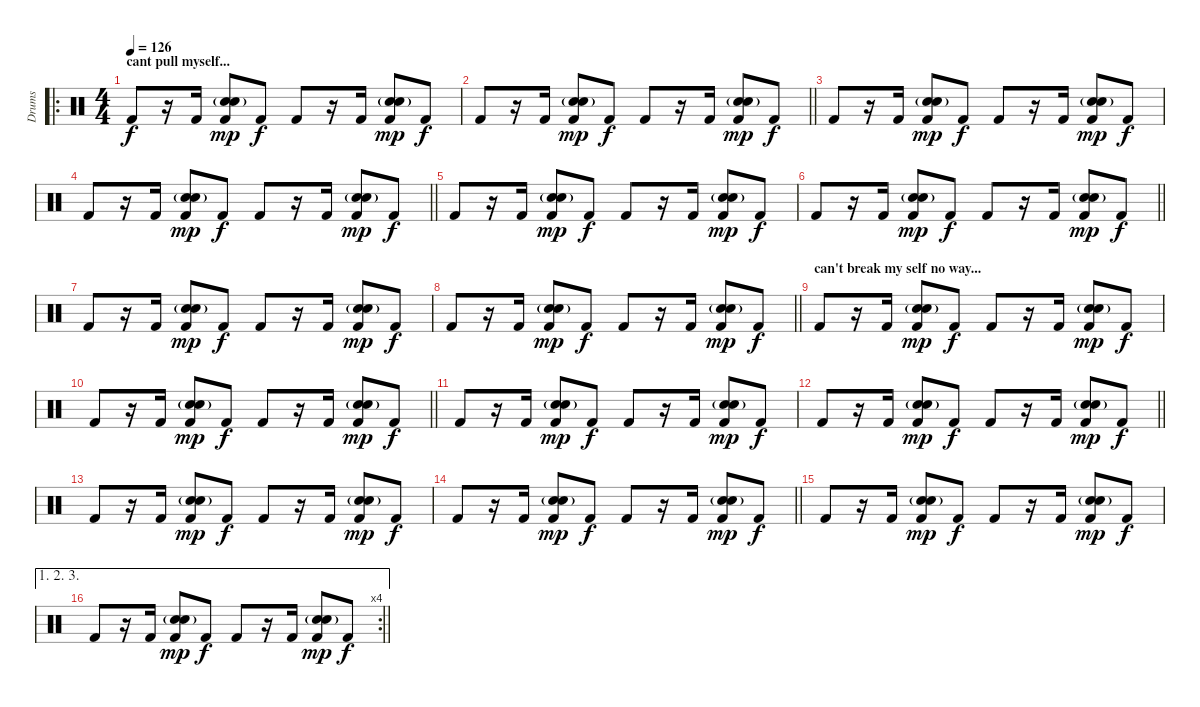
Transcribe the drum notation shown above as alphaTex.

\track ("Drums" "Drums") {instrument percussion}
\staff {score}
\articulation defaults
\ro
\ts (4 4)
\section ("" "cant pull myself...")
\tempo 126
\clef neutral
\ks c "Kick (hit) 2".8{dy f}
r.16 "Kick (hit) 2".16 ("Hand Clap (hit)" "Electric Snare (hit)"{g} "Kick (hit) 2").8{dy mp} "Kick (hit) 2".8{dy f} "Kick (hit) 2".8 r.16 "Kick (hit) 2".16 ("Hand Clap (hit)" "Electric Snare (hit)"{g} "Kick (hit) 2").8{dy mp} "Kick (hit) 2".8{dy f} |
\barLineRight lightlight "Kick (hit) 2".8
r.16 "Kick (hit) 2".16 ("Hand Clap (hit)" "Electric Snare (hit)"{g} "Kick (hit) 2").8{dy mp} "Kick (hit) 2".8{dy f} "Kick (hit) 2".8 r.16 "Kick (hit) 2".16 ("Hand Clap (hit)" "Electric Snare (hit)"{g} "Kick (hit) 2").8{dy mp} "Kick (hit) 2".8{dy f} |
"Kick (hit) 2".8 r.16 "Kick (hit) 2".16 ("Hand Clap (hit)" "Electric Snare (hit)"{g} "Kick (hit) 2").8{dy mp} "Kick (hit) 2".8{dy f} "Kick (hit) 2".8 r.16 "Kick (hit) 2".16 ("Hand Clap (hit)" "Electric Snare (hit)"{g} "Kick (hit) 2").8{dy mp} "Kick (hit) 2".8{dy f} |
\barLineRight lightlight "Kick (hit) 2".8
r.16 "Kick (hit) 2".16 ("Hand Clap (hit)" "Electric Snare (hit)"{g} "Kick (hit) 2").8{dy mp} "Kick (hit) 2".8{dy f} "Kick (hit) 2".8 r.16 "Kick (hit) 2".16 ("Hand Clap (hit)" "Electric Snare (hit)"{g} "Kick (hit) 2").8{dy mp} "Kick (hit) 2".8{dy f} |
"Kick (hit) 2".8 r.16 "Kick (hit) 2".16 ("Hand Clap (hit)" "Electric Snare (hit)"{g} "Kick (hit) 2").8{dy mp} "Kick (hit) 2".8{dy f} "Kick (hit) 2".8 r.16 "Kick (hit) 2".16 ("Hand Clap (hit)" "Electric Snare (hit)"{g} "Kick (hit) 2").8{dy mp} "Kick (hit) 2".8{dy f} |
\barLineRight lightlight "Kick (hit) 2".8
r.16 "Kick (hit) 2".16 ("Hand Clap (hit)" "Electric Snare (hit)"{g} "Kick (hit) 2").8{dy mp} "Kick (hit) 2".8{dy f} "Kick (hit) 2".8 r.16 "Kick (hit) 2".16 ("Hand Clap (hit)" "Electric Snare (hit)"{g} "Kick (hit) 2").8{dy mp} "Kick (hit) 2".8{dy f} |
"Kick (hit) 2".8 r.16 "Kick (hit) 2".16 ("Hand Clap (hit)" "Electric Snare (hit)"{g} "Kick (hit) 2").8{dy mp} "Kick (hit) 2".8{dy f} "Kick (hit) 2".8 r.16 "Kick (hit) 2".16 ("Hand Clap (hit)" "Electric Snare (hit)"{g} "Kick (hit) 2").8{dy mp} "Kick (hit) 2".8{dy f} |
\barLineRight lightlight "Kick (hit) 2".8
r.16 "Kick (hit) 2".16 ("Hand Clap (hit)" "Electric Snare (hit)"{g} "Kick (hit) 2").8{dy mp} "Kick (hit) 2".8{dy f} "Kick (hit) 2".8 r.16 "Kick (hit) 2".16 ("Hand Clap (hit)" "Electric Snare (hit)"{g} "Kick (hit) 2").8{dy mp} "Kick (hit) 2".8{dy f} |
\section ("" "can't break my self no way...")
"Kick (hit) 2".8 r.16 "Kick (hit) 2".16 ("Hand Clap (hit)" "Electric Snare (hit)"{g} "Kick (hit) 2").8{dy mp} "Kick (hit) 2".8{dy f} "Kick (hit) 2".8 r.16 "Kick (hit) 2".16 ("Hand Clap (hit)" "Electric Snare (hit)"{g} "Kick (hit) 2").8{dy mp} "Kick (hit) 2".8{dy f} |
\barLineRight lightlight "Kick (hit) 2".8
r.16 "Kick (hit) 2".16 ("Hand Clap (hit)" "Electric Snare (hit)"{g} "Kick (hit) 2").8{dy mp} "Kick (hit) 2".8{dy f} "Kick (hit) 2".8 r.16 "Kick (hit) 2".16 ("Hand Clap (hit)" "Electric Snare (hit)"{g} "Kick (hit) 2").8{dy mp} "Kick (hit) 2".8{dy f} |
"Kick (hit) 2".8 r.16 "Kick (hit) 2".16 ("Hand Clap (hit)" "Electric Snare (hit)"{g} "Kick (hit) 2").8{dy mp} "Kick (hit) 2".8{dy f} "Kick (hit) 2".8 r.16 "Kick (hit) 2".16 ("Hand Clap (hit)" "Electric Snare (hit)"{g} "Kick (hit) 2").8{dy mp} "Kick (hit) 2".8{dy f} |
\barLineRight lightlight "Kick (hit) 2".8
r.16 "Kick (hit) 2".16 ("Hand Clap (hit)" "Electric Snare (hit)"{g} "Kick (hit) 2").8{dy mp} "Kick (hit) 2".8{dy f} "Kick (hit) 2".8 r.16 "Kick (hit) 2".16 ("Hand Clap (hit)" "Electric Snare (hit)"{g} "Kick (hit) 2").8{dy mp} "Kick (hit) 2".8{dy f} |
"Kick (hit) 2".8 r.16 "Kick (hit) 2".16 ("Hand Clap (hit)" "Electric Snare (hit)"{g} "Kick (hit) 2").8{dy mp} "Kick (hit) 2".8{dy f} "Kick (hit) 2".8 r.16 "Kick (hit) 2".16 ("Hand Clap (hit)" "Electric Snare (hit)"{g} "Kick (hit) 2").8{dy mp} "Kick (hit) 2".8{dy f} |
\barLineRight lightlight "Kick (hit) 2".8
r.16 "Kick (hit) 2".16 ("Hand Clap (hit)" "Electric Snare (hit)"{g} "Kick (hit) 2").8{dy mp} "Kick (hit) 2".8{dy f} "Kick (hit) 2".8 r.16 "Kick (hit) 2".16 ("Hand Clap (hit)" "Electric Snare (hit)"{g} "Kick (hit) 2").8{dy mp} "Kick (hit) 2".8{dy f} |
"Kick (hit) 2".8 r.16 "Kick (hit) 2".16 ("Hand Clap (hit)" "Electric Snare (hit)"{g} "Kick (hit) 2").8{dy mp} "Kick (hit) 2".8{dy f} "Kick (hit) 2".8 r.16 "Kick (hit) 2".16 ("Hand Clap (hit)" "Electric Snare (hit)"{g} "Kick (hit) 2").8{dy mp} "Kick (hit) 2".8{dy f} |
\ae (1 2 3)
\rc 4
\barLineRight lightlight "Kick (hit) 2".8
r.16 "Kick (hit) 2".16 ("Hand Clap (hit)" "Electric Snare (hit)"{g} "Kick (hit) 2").8{dy mp} "Kick (hit) 2".8{dy f} "Kick (hit) 2".8 r.16 "Kick (hit) 2".16 ("Hand Clap (hit)" "Electric Snare (hit)"{g} "Kick (hit) 2").8{dy mp} "Kick (hit) 2".8{dy f}
